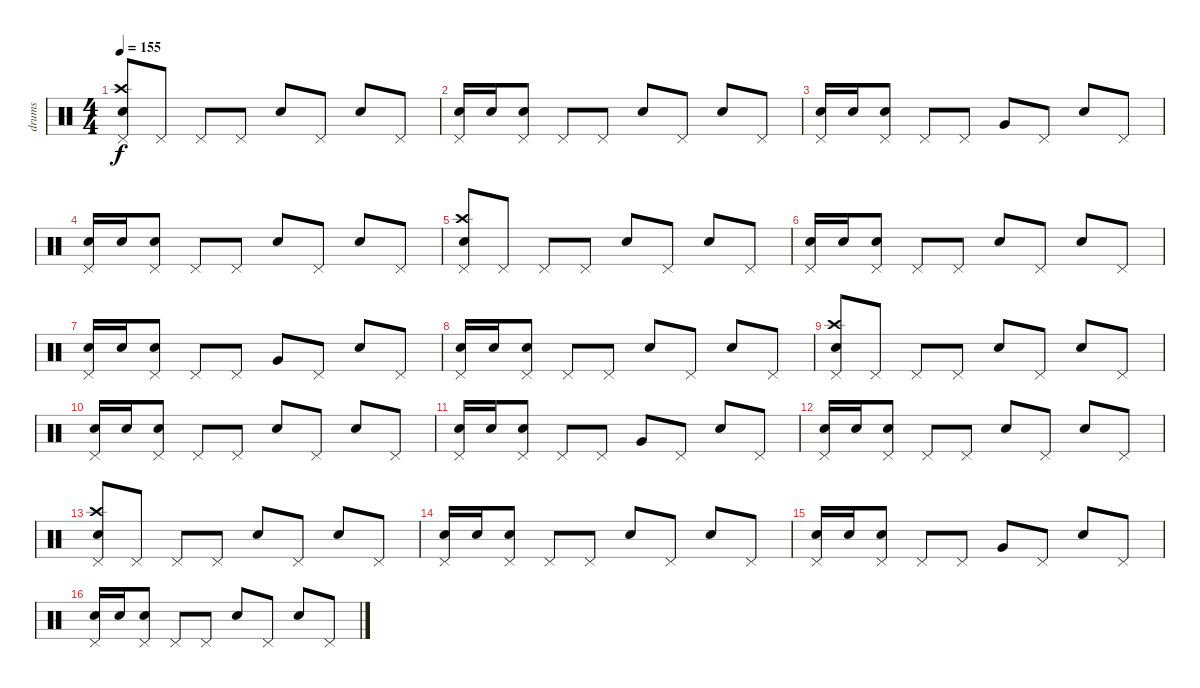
\track ("drums" "drums") {instrument percussion}
\staff {score}
\articulation defaults
\ts (4 4)
\tempo 155
\clef neutral
\ks c
("Electric Snare (hit)" "Crash high (hit)" "Pedal Hi-Hat (hit)").8{dy f} "Pedal Hi-Hat (hit)".8 "Pedal Hi-Hat (hit)".8 "Pedal Hi-Hat (hit)".8 "Electric Snare (hit)".8 "Pedal Hi-Hat (hit)".8 "Electric Snare (hit)".8 "Pedal Hi-Hat (hit)".8 |
("Electric Snare (hit)" "Pedal Hi-Hat (hit)").16 "Electric Snare (hit)".16 ("Electric Snare (hit)" "Pedal Hi-Hat (hit)").8 "Pedal Hi-Hat (hit)".8 "Pedal Hi-Hat (hit)".8 "Electric Snare (hit)".8 "Pedal Hi-Hat (hit)".8 "Electric Snare (hit)".8 "Pedal Hi-Hat (hit)".8 |
("Electric Snare (hit)" "Pedal Hi-Hat (hit)").16 "Electric Snare (hit)".16 ("Electric Snare (hit)" "Pedal Hi-Hat (hit)").8 "Pedal Hi-Hat (hit)".8 "Pedal Hi-Hat (hit)".8 "Very Low Tom (hit)".8 "Pedal Hi-Hat (hit)".8 "Electric Snare (hit)".8 "Pedal Hi-Hat (hit)".8 |
("Electric Snare (hit)" "Pedal Hi-Hat (hit)").16 "Electric Snare (hit)".16 ("Electric Snare (hit)" "Pedal Hi-Hat (hit)").8 "Pedal Hi-Hat (hit)".8 "Pedal Hi-Hat (hit)".8 "Electric Snare (hit)".8 "Pedal Hi-Hat (hit)".8 "Electric Snare (hit)".8 "Pedal Hi-Hat (hit)".8 |
("Electric Snare (hit)" "Crash high (hit)" "Pedal Hi-Hat (hit)").8 "Pedal Hi-Hat (hit)".8 "Pedal Hi-Hat (hit)".8 "Pedal Hi-Hat (hit)".8 "Electric Snare (hit)".8 "Pedal Hi-Hat (hit)".8 "Electric Snare (hit)".8 "Pedal Hi-Hat (hit)".8 |
("Electric Snare (hit)" "Pedal Hi-Hat (hit)").16 "Electric Snare (hit)".16 ("Electric Snare (hit)" "Pedal Hi-Hat (hit)").8 "Pedal Hi-Hat (hit)".8 "Pedal Hi-Hat (hit)".8 "Electric Snare (hit)".8 "Pedal Hi-Hat (hit)".8 "Electric Snare (hit)".8 "Pedal Hi-Hat (hit)".8 |
("Electric Snare (hit)" "Pedal Hi-Hat (hit)").16 "Electric Snare (hit)".16 ("Electric Snare (hit)" "Pedal Hi-Hat (hit)").8 "Pedal Hi-Hat (hit)".8 "Pedal Hi-Hat (hit)".8 "Very Low Tom (hit)".8 "Pedal Hi-Hat (hit)".8 "Electric Snare (hit)".8 "Pedal Hi-Hat (hit)".8 |
("Electric Snare (hit)" "Pedal Hi-Hat (hit)").16 "Electric Snare (hit)".16 ("Electric Snare (hit)" "Pedal Hi-Hat (hit)").8 "Pedal Hi-Hat (hit)".8 "Pedal Hi-Hat (hit)".8 "Electric Snare (hit)".8 "Pedal Hi-Hat (hit)".8 "Electric Snare (hit)".8 "Pedal Hi-Hat (hit)".8 |
("Electric Snare (hit)" "Crash high (hit)" "Pedal Hi-Hat (hit)").8 "Pedal Hi-Hat (hit)".8 "Pedal Hi-Hat (hit)".8 "Pedal Hi-Hat (hit)".8 "Electric Snare (hit)".8 "Pedal Hi-Hat (hit)".8 "Electric Snare (hit)".8 "Pedal Hi-Hat (hit)".8 |
("Electric Snare (hit)" "Pedal Hi-Hat (hit)").16 "Electric Snare (hit)".16 ("Electric Snare (hit)" "Pedal Hi-Hat (hit)").8 "Pedal Hi-Hat (hit)".8 "Pedal Hi-Hat (hit)".8 "Electric Snare (hit)".8 "Pedal Hi-Hat (hit)".8 "Electric Snare (hit)".8 "Pedal Hi-Hat (hit)".8 |
("Electric Snare (hit)" "Pedal Hi-Hat (hit)").16 "Electric Snare (hit)".16 ("Electric Snare (hit)" "Pedal Hi-Hat (hit)").8 "Pedal Hi-Hat (hit)".8 "Pedal Hi-Hat (hit)".8 "Very Low Tom (hit)".8 "Pedal Hi-Hat (hit)".8 "Electric Snare (hit)".8 "Pedal Hi-Hat (hit)".8 |
("Electric Snare (hit)" "Pedal Hi-Hat (hit)").16 "Electric Snare (hit)".16 ("Electric Snare (hit)" "Pedal Hi-Hat (hit)").8 "Pedal Hi-Hat (hit)".8 "Pedal Hi-Hat (hit)".8 "Electric Snare (hit)".8 "Pedal Hi-Hat (hit)".8 "Electric Snare (hit)".8 "Pedal Hi-Hat (hit)".8 |
("Electric Snare (hit)" "Crash high (hit)" "Pedal Hi-Hat (hit)").8 "Pedal Hi-Hat (hit)".8 "Pedal Hi-Hat (hit)".8 "Pedal Hi-Hat (hit)".8 "Electric Snare (hit)".8 "Pedal Hi-Hat (hit)".8 "Electric Snare (hit)".8 "Pedal Hi-Hat (hit)".8 |
("Electric Snare (hit)" "Pedal Hi-Hat (hit)").16 "Electric Snare (hit)".16 ("Electric Snare (hit)" "Pedal Hi-Hat (hit)").8 "Pedal Hi-Hat (hit)".8 "Pedal Hi-Hat (hit)".8 "Electric Snare (hit)".8 "Pedal Hi-Hat (hit)".8 "Electric Snare (hit)".8 "Pedal Hi-Hat (hit)".8 |
("Electric Snare (hit)" "Pedal Hi-Hat (hit)").16 "Electric Snare (hit)".16 ("Electric Snare (hit)" "Pedal Hi-Hat (hit)").8 "Pedal Hi-Hat (hit)".8 "Pedal Hi-Hat (hit)".8 "Very Low Tom (hit)".8 "Pedal Hi-Hat (hit)".8 "Electric Snare (hit)".8 "Pedal Hi-Hat (hit)".8 |
("Electric Snare (hit)" "Pedal Hi-Hat (hit)").16 "Electric Snare (hit)".16 ("Electric Snare (hit)" "Pedal Hi-Hat (hit)").8 "Pedal Hi-Hat (hit)".8 "Pedal Hi-Hat (hit)".8 "Electric Snare (hit)".8 "Pedal Hi-Hat (hit)".8 "Electric Snare (hit)".8 "Pedal Hi-Hat (hit)".8
